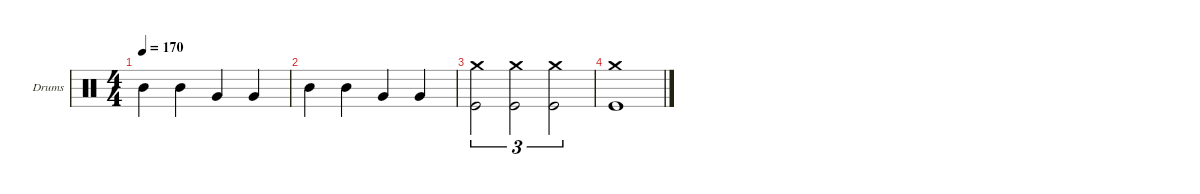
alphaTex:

\defaultSystemsLayout 4
\hideDynamics
\bracketExtendMode groupsimilarinstruments
\firstSystemTrackNameOrientation horizontal
\otherSystemsTrackNameOrientation horizontal
\track ("Drumkit" "Drums") {instrument percussion}
\staff {score}
\articulation defaults
\ts (4 4)
\tempo 170
\clef neutral
\ks c "Mid Tom (hit)".4{dy f} "Mid Tom (hit)".4 "Very Low Tom (hit)".4 "Very Low Tom (hit)".4
|
"Mid Tom (hit)".4 "Mid Tom (hit)".4 "Very Low Tom (hit)".4 "Very Low Tom (hit)".4 |
("Crash medium (hit)" "Kick (hit)").2{tu (3 2)} ("Crash medium (hit)" "Kick (hit)").2{tu (3 2)} ("Crash medium (hit)" "Kick (hit)").2{tu (3 2)} |
("Crash medium (hit)" "Kick (hit)").1
